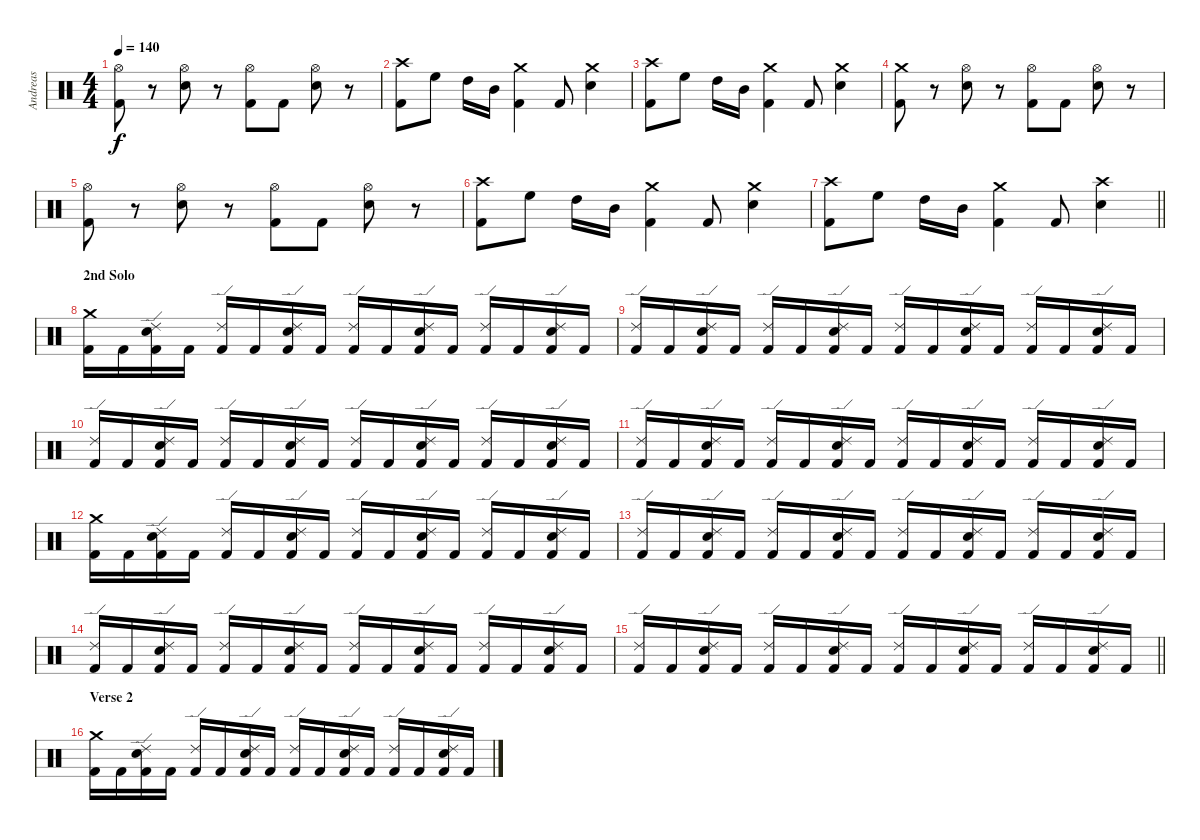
\track ("Andreas" "Andreas") {instrument percussion}
\staff {score}
\articulation defaults
\ts (4 4)
\tempo 140
\clef neutral
\ks c
("Hi-Hat (open)" "Kick (hit) 2").8{dy f} r.8 ("Hi-Hat (open)" "Electric Snare (hit)").8 r.8 ("Hi-Hat (open)" "Kick (hit) 2").8 "Kick (hit) 2".8 ("Hi-Hat (open)" "Electric Snare (hit)").8 r.8 |
("Crash high (hit)" "Kick (hit) 2").8 "High Floor Tom (hit)".8 "High Tom (hit)".16 "Mid Tom (hit)".16 ("Crash medium (hit)" "Kick (hit) 2").4 "Kick (hit) 2".8 ("Crash medium (hit)" "Electric Snare (hit)").4 |
("Crash high (hit)" "Kick (hit) 2").8 "High Floor Tom (hit)".8 "High Tom (hit)".16 "Mid Tom (hit)".16 ("Crash medium (hit)" "Kick (hit) 2").4 "Kick (hit) 2".8 ("Crash medium (hit)" "Electric Snare (hit)").4 |
("Crash medium (hit)" "Kick (hit) 2").8 r.8 ("Hi-Hat (open)" "Electric Snare (hit)").8 r.8 ("Hi-Hat (open)" "Kick (hit) 2").8 "Kick (hit) 2".8 ("Hi-Hat (open)" "Electric Snare (hit)").8 r.8 |
("Hi-Hat (open)" "Kick (hit) 2").8 r.8 ("Hi-Hat (open)" "Electric Snare (hit)").8 r.8 ("Hi-Hat (open)" "Kick (hit) 2").8 "Kick (hit) 2".8 ("Hi-Hat (open)" "Electric Snare (hit)").8 r.8 |
("Crash high (hit)" "Kick (hit) 2").8 "High Floor Tom (hit)".8 "High Tom (hit)".16 "Mid Tom (hit)".16 ("Crash medium (hit)" "Kick (hit) 2").4 "Kick (hit) 2".8 ("Crash medium (hit)" "Electric Snare (hit)").4 |
\barLineRight lightlight
("Crash high (hit)" "Kick (hit) 2").8 "High Floor Tom (hit)".8 "High Tom (hit)".16 "Mid Tom (hit)".16 ("Crash medium (hit)" "Kick (hit) 2").4 "Kick (hit) 2".8 ("Crash high (hit)" "Electric Snare (hit)").4 |
\section ("" "2nd Solo")
("Crash medium (hit)" "Kick (hit) 2").16 "Kick (hit) 2".16 ("Ride (edge) 2" "Electric Snare (hit)" "Kick (hit) 2").16 "Kick (hit) 2".16 ("Ride (edge) 2" "Kick (hit) 2").16 "Kick (hit) 2".16 ("Ride (edge) 2" "Electric Snare (hit)" "Kick (hit) 2").16 "Kick (hit) 2".16 ("Ride (edge) 2" "Kick (hit) 2").16 "Kick (hit) 2".16 ("Ride (edge) 2" "Electric Snare (hit)" "Kick (hit) 2").16 "Kick (hit) 2".16 ("Ride (edge) 2" "Kick (hit) 2").16 "Kick (hit) 2".16 ("Ride (edge) 2" "Electric Snare (hit)" "Kick (hit) 2").16 "Kick (hit) 2".16 |
("Ride (edge) 2" "Kick (hit) 2").16 "Kick (hit) 2".16 ("Ride (edge) 2" "Electric Snare (hit)" "Kick (hit) 2").16 "Kick (hit) 2".16 ("Ride (edge) 2" "Kick (hit) 2").16 "Kick (hit) 2".16 ("Ride (edge) 2" "Electric Snare (hit)" "Kick (hit) 2").16 "Kick (hit) 2".16 ("Ride (edge) 2" "Kick (hit) 2").16 "Kick (hit) 2".16 ("Ride (edge) 2" "Electric Snare (hit)" "Kick (hit) 2").16 "Kick (hit) 2".16 ("Ride (edge) 2" "Kick (hit) 2").16 "Kick (hit) 2".16 ("Ride (edge) 2" "Electric Snare (hit)" "Kick (hit) 2").16 "Kick (hit) 2".16 |
("Ride (edge) 2" "Kick (hit) 2").16 "Kick (hit) 2".16 ("Ride (edge) 2" "Electric Snare (hit)" "Kick (hit) 2").16 "Kick (hit) 2".16 ("Ride (edge) 2" "Kick (hit) 2").16 "Kick (hit) 2".16 ("Ride (edge) 2" "Electric Snare (hit)" "Kick (hit) 2").16 "Kick (hit) 2".16 ("Ride (edge) 2" "Kick (hit) 2").16 "Kick (hit) 2".16 ("Ride (edge) 2" "Electric Snare (hit)" "Kick (hit) 2").16 "Kick (hit) 2".16 ("Ride (edge) 2" "Kick (hit) 2").16 "Kick (hit) 2".16 ("Ride (edge) 2" "Electric Snare (hit)" "Kick (hit) 2").16 "Kick (hit) 2".16 |
("Ride (edge) 2" "Kick (hit) 2").16 "Kick (hit) 2".16 ("Ride (edge) 2" "Electric Snare (hit)" "Kick (hit) 2").16 "Kick (hit) 2".16 ("Ride (edge) 2" "Kick (hit) 2").16 "Kick (hit) 2".16 ("Ride (edge) 2" "Electric Snare (hit)" "Kick (hit) 2").16 "Kick (hit) 2".16 ("Ride (edge) 2" "Kick (hit) 2").16 "Kick (hit) 2".16 ("Ride (edge) 2" "Electric Snare (hit)" "Kick (hit) 2").16 "Kick (hit) 2".16 ("Ride (edge) 2" "Kick (hit) 2").16 "Kick (hit) 2".16 ("Ride (edge) 2" "Electric Snare (hit)" "Kick (hit) 2").16 "Kick (hit) 2".16 |
("Crash medium (hit)" "Kick (hit) 2").16 "Kick (hit) 2".16 ("Ride (edge) 2" "Electric Snare (hit)" "Kick (hit) 2").16 "Kick (hit) 2".16 ("Ride (edge) 2" "Kick (hit) 2").16 "Kick (hit) 2".16 ("Ride (edge) 2" "Electric Snare (hit)" "Kick (hit) 2").16 "Kick (hit) 2".16 ("Ride (edge) 2" "Kick (hit) 2").16 "Kick (hit) 2".16 ("Ride (edge) 2" "Electric Snare (hit)" "Kick (hit) 2").16 "Kick (hit) 2".16 ("Ride (edge) 2" "Kick (hit) 2").16 "Kick (hit) 2".16 ("Ride (edge) 2" "Electric Snare (hit)" "Kick (hit) 2").16 "Kick (hit) 2".16 |
("Ride (edge) 2" "Kick (hit) 2").16 "Kick (hit) 2".16 ("Ride (edge) 2" "Electric Snare (hit)" "Kick (hit) 2").16 "Kick (hit) 2".16 ("Ride (edge) 2" "Kick (hit) 2").16 "Kick (hit) 2".16 ("Ride (edge) 2" "Electric Snare (hit)" "Kick (hit) 2").16 "Kick (hit) 2".16 ("Ride (edge) 2" "Kick (hit) 2").16 "Kick (hit) 2".16 ("Ride (edge) 2" "Electric Snare (hit)" "Kick (hit) 2").16 "Kick (hit) 2".16 ("Ride (edge) 2" "Kick (hit) 2").16 "Kick (hit) 2".16 ("Ride (edge) 2" "Electric Snare (hit)" "Kick (hit) 2").16 "Kick (hit) 2".16 |
("Ride (edge) 2" "Kick (hit) 2").16 "Kick (hit) 2".16 ("Ride (edge) 2" "Electric Snare (hit)" "Kick (hit) 2").16 "Kick (hit) 2".16 ("Ride (edge) 2" "Kick (hit) 2").16 "Kick (hit) 2".16 ("Ride (edge) 2" "Electric Snare (hit)" "Kick (hit) 2").16 "Kick (hit) 2".16 ("Ride (edge) 2" "Kick (hit) 2").16 "Kick (hit) 2".16 ("Ride (edge) 2" "Electric Snare (hit)" "Kick (hit) 2").16 "Kick (hit) 2".16 ("Ride (edge) 2" "Kick (hit) 2").16 "Kick (hit) 2".16 ("Ride (edge) 2" "Electric Snare (hit)" "Kick (hit) 2").16 "Kick (hit) 2".16 |
\barLineRight lightlight
("Ride (edge) 2" "Kick (hit) 2").16 "Kick (hit) 2".16 ("Ride (edge) 2" "Electric Snare (hit)" "Kick (hit) 2").16 "Kick (hit) 2".16 ("Ride (edge) 2" "Kick (hit) 2").16 "Kick (hit) 2".16 ("Ride (edge) 2" "Electric Snare (hit)" "Kick (hit) 2").16 "Kick (hit) 2".16 ("Ride (edge) 2" "Kick (hit) 2").16 "Kick (hit) 2".16 ("Ride (edge) 2" "Electric Snare (hit)" "Kick (hit) 2").16 "Kick (hit) 2".16 ("Ride (edge) 2" "Kick (hit) 2").16 "Kick (hit) 2".16 ("Ride (edge) 2" "Electric Snare (hit)" "Kick (hit) 2").16 "Kick (hit) 2".16 |
\section ("" "Verse 2")
("Crash medium (hit)" "Kick (hit) 2").16 "Kick (hit) 2".16 ("Ride (edge) 2" "Electric Snare (hit)" "Kick (hit) 2").16 "Kick (hit) 2".16 ("Ride (edge) 2" "Kick (hit) 2").16 "Kick (hit) 2".16 ("Ride (edge) 2" "Electric Snare (hit)" "Kick (hit) 2").16 "Kick (hit) 2".16 ("Ride (edge) 2" "Kick (hit) 2").16 "Kick (hit) 2".16 ("Ride (edge) 2" "Electric Snare (hit)" "Kick (hit) 2").16 "Kick (hit) 2".16 ("Ride (edge) 2" "Kick (hit) 2").16 "Kick (hit) 2".16 ("Ride (edge) 2" "Electric Snare (hit)" "Kick (hit) 2").16 "Kick (hit) 2".16
